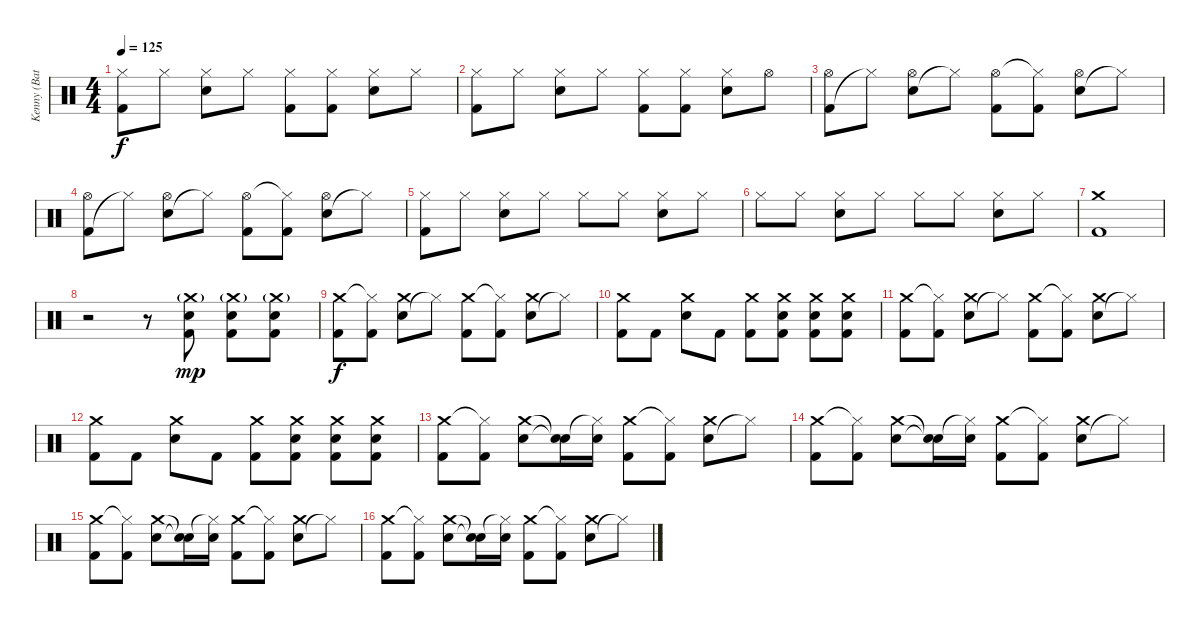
\track ("Kenny (Batterie)" "Kenny (Bat") {instrument percussion}
\staff {score}
\articulation defaults
\ts (4 4)
\tempo 125
\clef neutral
\ks c
("Kick (hit) 2" "Hi-Hat (closed)").8{dy f} "Hi-Hat (closed)".8 ("Electric Snare (hit)" "Hi-Hat (closed)").8 "Hi-Hat (closed)".8 ("Kick (hit) 2" "Hi-Hat (closed)").8 ("Kick (hit) 2" "Hi-Hat (closed)").8 ("Electric Snare (hit)" "Hi-Hat (closed)").8 "Hi-Hat (closed)".8 |
("Kick (hit) 2" "Hi-Hat (closed)").8 "Hi-Hat (closed)".8 ("Electric Snare (hit)" "Hi-Hat (closed)").8 "Hi-Hat (closed)".8 ("Kick (hit) 2" "Hi-Hat (closed)").8 ("Kick (hit) 2" "Hi-Hat (closed)").8 ("Electric Snare (hit)" "Hi-Hat (closed)").8 "Hi-Hat (open)".8 |
("Kick (hit) 2" "Hi-Hat (open)").8 "Hi-Hat (closed)"{t}.8 ("Electric Snare (hit)" "Hi-Hat (open)").8 "Hi-Hat (closed)"{t}.8 ("Kick (hit) 2" "Hi-Hat (open)").8 ("Kick (hit) 2" "Hi-Hat (closed)"{t}).8 ("Electric Snare (hit)" "Hi-Hat (open)").8 "Hi-Hat (closed)"{t}.8 |
("Kick (hit) 2" "Hi-Hat (open)").8 "Hi-Hat (closed)"{t}.8 ("Electric Snare (hit)" "Hi-Hat (open)").8 "Hi-Hat (closed)"{t}.8 ("Kick (hit) 2" "Hi-Hat (open)").8 ("Kick (hit) 2" "Hi-Hat (closed)"{t}).8 ("Electric Snare (hit)" "Hi-Hat (open)").8 "Hi-Hat (closed)"{t}.8 |
("Kick (hit) 2" "Hi-Hat (closed)").8 "Hi-Hat (closed)".8 ("Electric Snare (hit)" "Hi-Hat (closed)").8 "Hi-Hat (closed)".8 "Hi-Hat (closed)".8 "Hi-Hat (closed)".8 ("Electric Snare (hit)" "Hi-Hat (closed)").8 "Hi-Hat (closed)".8 |
"Hi-Hat (closed)".8 "Hi-Hat (closed)".8 ("Electric Snare (hit)" "Hi-Hat (closed)").8 "Hi-Hat (closed)".8 "Hi-Hat (closed)".8 "Hi-Hat (closed)".8 ("Electric Snare (hit)" "Hi-Hat (closed)").8 "Hi-Hat (closed)".8 |
("Crash medium (hit)" "Kick (hit) 2").1 |
r.2 r.8 ("Kick (hit) 2" "Electric Snare (hit)" "Crash medium (hit)"{g}).8{dy mp} ("Kick (hit) 2" "Electric Snare (hit)" "Crash medium (hit)"{g}).8 ("Kick (hit) 2" "Electric Snare (hit)" "Crash medium (hit)"{g}).8 |
("Kick (hit) 2" "Crash medium (hit)").8{dy f} ("Kick (hit) 2" "Hi-Hat (closed)"{t}).8 ("Electric Snare (hit)" "Crash medium (hit)").8 "Hi-Hat (closed)"{t}.8 ("Kick (hit) 2" "Crash medium (hit)").8 ("Kick (hit) 2" "Hi-Hat (closed)"{t}).8 ("Electric Snare (hit)" "Crash medium (hit)").8 "Hi-Hat (closed)"{t}.8 |
("Kick (hit) 2" "Crash medium (hit)").8 "Kick (hit) 2".8 ("Electric Snare (hit)" "Crash medium (hit)").8 "Kick (hit) 2".8 ("Kick (hit) 2" "Crash medium (hit)").8 ("Kick (hit) 2" "Electric Snare (hit)" "Crash medium (hit)").8 ("Kick (hit) 2" "Electric Snare (hit)" "Crash medium (hit)").8 ("Kick (hit) 2" "Electric Snare (hit)" "Crash medium (hit)").8 |
("Kick (hit) 2" "Crash medium (hit)").8 ("Kick (hit) 2" "Hi-Hat (closed)"{t}).8 ("Electric Snare (hit)" "Crash medium (hit)").8 "Hi-Hat (closed)"{t}.8 ("Kick (hit) 2" "Crash medium (hit)").8 ("Kick (hit) 2" "Hi-Hat (closed)"{t}).8 ("Electric Snare (hit)" "Crash medium (hit)").8 "Hi-Hat (closed)"{t}.8 |
("Kick (hit) 2" "Crash medium (hit)").8 "Kick (hit) 2".8 ("Electric Snare (hit)" "Crash medium (hit)").8 "Kick (hit) 2".8 ("Kick (hit) 2" "Crash medium (hit)").8 ("Kick (hit) 2" "Electric Snare (hit)" "Crash medium (hit)").8 ("Kick (hit) 2" "Electric Snare (hit)" "Crash medium (hit)").8 ("Kick (hit) 2" "Electric Snare (hit)" "Crash medium (hit)").8 |
("Kick (hit) 2" "Crash medium (hit)").8 ("Kick (hit) 2" "Hi-Hat (closed)"{t}).8 ("Electric Snare (hit)" "Crash medium (hit)").8 ("Snare (hit)"{t} "Snare (hit)"{t}).16 ("Electric Snare (hit)" "Hi-Hat (closed)"{t}).16 ("Kick (hit) 2" "Crash medium (hit)").8 ("Kick (hit) 2" "Hi-Hat (closed)"{t}).8 ("Electric Snare (hit)" "Crash medium (hit)").8 "Hi-Hat (closed)"{t}.8 |
("Kick (hit) 2" "Crash medium (hit)").8 ("Kick (hit) 2" "Hi-Hat (closed)"{t}).8 ("Electric Snare (hit)" "Crash medium (hit)").8 ("Snare (hit)"{t} "Snare (hit)"{t}).16 ("Electric Snare (hit)" "Hi-Hat (closed)"{t}).16 ("Kick (hit) 2" "Crash medium (hit)").8 ("Kick (hit) 2" "Hi-Hat (closed)"{t}).8 ("Electric Snare (hit)" "Crash medium (hit)").8 "Hi-Hat (closed)"{t}.8 |
("Kick (hit) 2" "Crash medium (hit)").8 ("Kick (hit) 2" "Hi-Hat (closed)"{t}).8 ("Electric Snare (hit)" "Crash medium (hit)").8 ("Snare (hit)"{t} "Snare (hit)"{t}).16 ("Electric Snare (hit)" "Hi-Hat (closed)"{t}).16 ("Kick (hit) 2" "Crash medium (hit)").8 ("Kick (hit) 2" "Hi-Hat (closed)"{t}).8 ("Electric Snare (hit)" "Crash medium (hit)").8 "Hi-Hat (closed)"{t}.8 |
("Kick (hit) 2" "Crash medium (hit)").8 ("Kick (hit) 2" "Hi-Hat (closed)"{t}).8 ("Electric Snare (hit)" "Crash medium (hit)").8 ("Snare (hit)"{t} "Snare (hit)"{t}).16 ("Electric Snare (hit)" "Hi-Hat (closed)"{t}).16 ("Kick (hit) 2" "Crash medium (hit)").8 ("Kick (hit) 2" "Hi-Hat (closed)"{t}).8 ("Electric Snare (hit)" "Crash medium (hit)").8 "Hi-Hat (closed)"{t}.8
